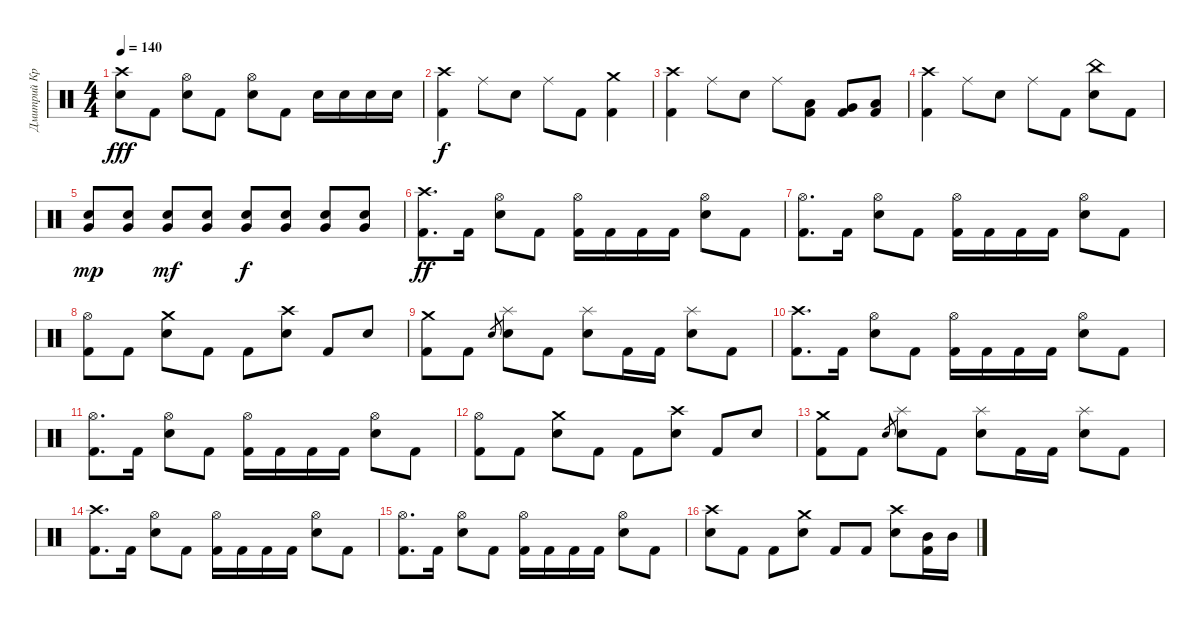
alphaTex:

\track ("Дмитрий Кривенков" "Дмитрий Кр") {instrument percussion}
\staff {score}
\articulation defaults
\ts (4 4)
\tempo 140
\clef neutral
\ks c
("Crash high (hit)" "Electric Snare (hit)").8{dy fff} "Kick (hit) 2".8 ("Hi-Hat (open)" "Electric Snare (hit)").8 "Kick (hit) 2".8 ("Hi-Hat (open)" "Electric Snare (hit)").8 "Kick (hit) 2".8 "Electric Snare (hit)".16 "Electric Snare (hit)".16 "Electric Snare (hit)".16 "Electric Snare (hit)".16 |
("Crash high (hit)" "Kick (hit) 2").4{dy f} "Ride (middle)".8 "Electric Snare (hit)".8 "Ride (middle)".8 "Kick (hit) 2".8 ("Crash medium (hit)" "Kick (hit) 2").4 |
("Crash high (hit)" "Kick (hit) 2").4 "Ride (middle)".8 "Electric Snare (hit)".8 "Ride (middle)".8 ("Low Floor Tom (hit)" "Kick (hit) 2").8 ("Very Low Tom (hit)" "Kick (hit) 2").8 ("Low Floor Tom (hit)" "Kick (hit) 2").8 |
("Crash high (hit)" "Kick (hit) 2").4 "Ride (middle)".8 "Electric Snare (hit)".8 "Ride (middle)".8 "Kick (hit) 2".8 ("China (hit)" "Electric Snare (hit)").8 "Kick (hit) 2".8 |
("Electric Snare (hit)" "Very Low Tom (hit)").8{dy mp} ("Electric Snare (hit)" "Very Low Tom (hit)").8 ("Electric Snare (hit)" "Very Low Tom (hit)").8{dy mf} ("Electric Snare (hit)" "Very Low Tom (hit)").8 ("Electric Snare (hit)" "Very Low Tom (hit)").8{dy f} ("Electric Snare (hit)" "Very Low Tom (hit)").8 ("Electric Snare (hit)" "Very Low Tom (hit)").8 ("Electric Snare (hit)" "Very Low Tom (hit)").8 |
("Crash high (hit)" "Kick (hit) 2").8{d dy ff} "Kick (hit) 2".16 ("Hi-Hat (open)" "Electric Snare (hit)").8 "Kick (hit) 2".8 ("Hi-Hat (open)" "Kick (hit) 2").16 "Kick (hit) 2".16 "Kick (hit) 2".16 "Kick (hit) 2".16 ("Hi-Hat (open)" "Electric Snare (hit)").8 "Kick (hit) 2".8 |
("Hi-Hat (open)" "Kick (hit) 2").8{d} "Kick (hit) 2".16 ("Hi-Hat (open)" "Electric Snare (hit)").8 "Kick (hit) 2".8 ("Hi-Hat (open)" "Kick (hit) 2").16 "Kick (hit) 2".16 "Kick (hit) 2".16 "Kick (hit) 2".16 ("Hi-Hat (open)" "Electric Snare (hit)").8 "Kick (hit) 2".8 |
("Hi-Hat (open)" "Kick (hit) 2").8 "Kick (hit) 2".8 ("Crash medium (hit)" "Electric Snare (hit)").8 "Kick (hit) 2".8 "Kick (hit) 2".8 ("Crash high (hit)" "Electric Snare (hit)").8 "Kick (hit) 2".8 "Electric Snare (hit)".8 |
("Crash medium (hit)" "Kick (hit) 2").8 "Kick (hit) 2".8 "Electric Snare (hit)".8{gr} ("Splash (hit)" "Electric Snare (hit)").8 "Kick (hit) 2".8 ("Splash (hit)" "Electric Snare (hit)").8 "Kick (hit) 2".16 "Kick (hit) 2".16 ("Splash (hit)" "Electric Snare (hit)").8 "Kick (hit) 2".8 |
("Crash high (hit)" "Kick (hit) 2").8{d} "Kick (hit) 2".16 ("Hi-Hat (open)" "Electric Snare (hit)").8 "Kick (hit) 2".8 ("Hi-Hat (open)" "Kick (hit) 2").16 "Kick (hit) 2".16 "Kick (hit) 2".16 "Kick (hit) 2".16 ("Hi-Hat (open)" "Electric Snare (hit)").8 "Kick (hit) 2".8 |
("Hi-Hat (open)" "Kick (hit) 2").8{d} "Kick (hit) 2".16 ("Hi-Hat (open)" "Electric Snare (hit)").8 "Kick (hit) 2".8 ("Hi-Hat (open)" "Kick (hit) 2").16 "Kick (hit) 2".16 "Kick (hit) 2".16 "Kick (hit) 2".16 ("Hi-Hat (open)" "Electric Snare (hit)").8 "Kick (hit) 2".8 |
("Hi-Hat (open)" "Kick (hit) 2").8 "Kick (hit) 2".8 ("Crash medium (hit)" "Electric Snare (hit)").8 "Kick (hit) 2".8 "Kick (hit) 2".8 ("Crash high (hit)" "Electric Snare (hit)").8 "Kick (hit) 2".8 "Electric Snare (hit)".8 |
("Crash medium (hit)" "Kick (hit) 2").8 "Kick (hit) 2".8 "Electric Snare (hit)".8{gr} ("Splash (hit)" "Electric Snare (hit)").8 "Kick (hit) 2".8 ("Splash (hit)" "Electric Snare (hit)").8 "Kick (hit) 2".16 "Kick (hit) 2".16 ("Splash (hit)" "Electric Snare (hit)").8 "Kick (hit) 2".8 |
("Crash high (hit)" "Kick (hit) 2").8{d} "Kick (hit) 2".16 ("Hi-Hat (open)" "Electric Snare (hit)").8 "Kick (hit) 2".8 ("Hi-Hat (open)" "Kick (hit) 2").16 "Kick (hit) 2".16 "Kick (hit) 2".16 "Kick (hit) 2".16 ("Hi-Hat (open)" "Electric Snare (hit)").8 "Kick (hit) 2".8 |
("Hi-Hat (open)" "Kick (hit) 2").8{d} "Kick (hit) 2".16 ("Hi-Hat (open)" "Electric Snare (hit)").8 "Kick (hit) 2".8 ("Hi-Hat (open)" "Kick (hit) 2").16 "Kick (hit) 2".16 "Kick (hit) 2".16 "Kick (hit) 2".16 ("Hi-Hat (open)" "Electric Snare (hit)").8 "Kick (hit) 2".8 |
("Crash high (hit)" "Electric Snare (hit)").8 "Kick (hit) 2".8 "Kick (hit) 2".8 ("Crash medium (hit)" "Electric Snare (hit)").8 "Kick (hit) 2".8 "Kick (hit) 2".8 ("Crash high (hit)" "Electric Snare (hit)").8 ("Mid Tom (hit)" "Kick (hit) 2").16 "Mid Tom (hit)".16
